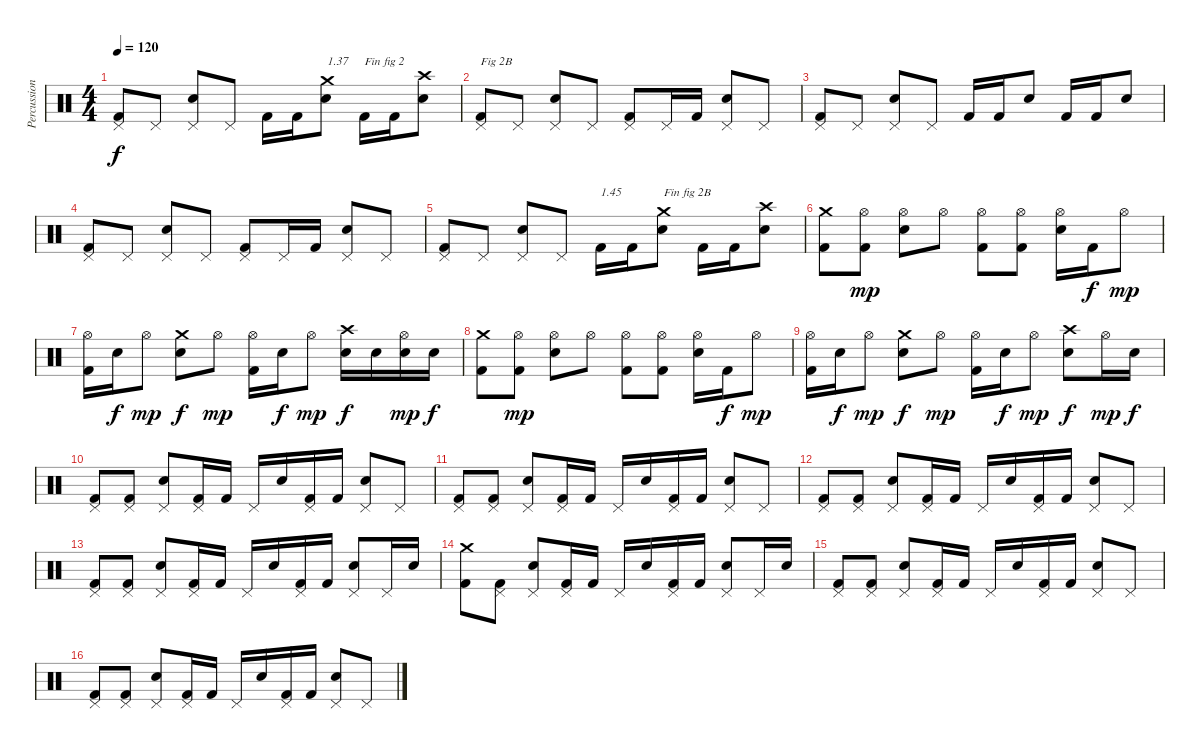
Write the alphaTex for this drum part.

\track ("Percussions" "Percussion") {instrument percussion}
\staff {score}
\articulation defaults
\ts (4 4)
\tempo 120
\clef neutral
\ks c
("Kick (hit) 2" "Pedal Hi-Hat (hit)").8{dy f} "Pedal Hi-Hat (hit)".8 ("Electric Snare (hit)" "Pedal Hi-Hat (hit)").8 "Pedal Hi-Hat (hit)".8 "Kick (hit) 2".16 "Kick (hit) 2".16 ("Electric Snare (hit)" "Crash medium (hit)").8{txt "1.37"} "Kick (hit) 2".16{txt "Fin fig 2"} "Kick (hit) 2".16 ("Electric Snare (hit)" "Crash high (hit)").8 |
("Kick (hit) 2" "Pedal Hi-Hat (hit)").8{txt "Fig 2B"} "Pedal Hi-Hat (hit)".8 ("Electric Snare (hit)" "Pedal Hi-Hat (hit)").8 "Pedal Hi-Hat (hit)".8 ("Kick (hit) 2" "Pedal Hi-Hat (hit)").8 "Pedal Hi-Hat (hit)".16 "Kick (hit) 2".16 ("Electric Snare (hit)" "Pedal Hi-Hat (hit)").8 "Pedal Hi-Hat (hit)".8 |
("Kick (hit) 2" "Pedal Hi-Hat (hit)").8 "Pedal Hi-Hat (hit)".8 ("Electric Snare (hit)" "Pedal Hi-Hat (hit)").8 "Pedal Hi-Hat (hit)".8 "Kick (hit) 2".16 "Kick (hit) 2".16 "Electric Snare (hit)".8 "Kick (hit) 2".16 "Kick (hit) 2".16 "Electric Snare (hit)".8 |
("Kick (hit) 2" "Pedal Hi-Hat (hit)").8 "Pedal Hi-Hat (hit)".8 ("Electric Snare (hit)" "Pedal Hi-Hat (hit)").8 "Pedal Hi-Hat (hit)".8 ("Kick (hit) 2" "Pedal Hi-Hat (hit)").8 "Pedal Hi-Hat (hit)".16 "Kick (hit) 2".16 ("Electric Snare (hit)" "Pedal Hi-Hat (hit)").8 "Pedal Hi-Hat (hit)".8 |
("Kick (hit) 2" "Pedal Hi-Hat (hit)").8 "Pedal Hi-Hat (hit)".8 ("Electric Snare (hit)" "Pedal Hi-Hat (hit)").8 "Pedal Hi-Hat (hit)".8 "Kick (hit) 2".16{txt "1.45"} "Kick (hit) 2".16 ("Electric Snare (hit)" "Crash medium (hit)").8{txt "Fin fig 2B"} "Kick (hit) 2".16 "Kick (hit) 2".16 ("Electric Snare (hit)" "Crash high (hit)").8 |
("Kick (hit) 2" "Crash medium (hit)").8 ("Kick (hit) 2" "Hi-Hat (open)").8{dy mp} ("Electric Snare (hit)" "Hi-Hat (open)").8 "Hi-Hat (open)".8 ("Kick (hit) 2" "Hi-Hat (open)").8 ("Kick (hit) 2" "Hi-Hat (open)").8 ("Electric Snare (hit)" "Hi-Hat (open)").16 "Kick (hit) 2".16{dy f} "Hi-Hat (open)".8{dy mp} |
("Kick (hit) 2" "Hi-Hat (open)").16 "Electric Snare (hit)".16{dy f} "Hi-Hat (open)".8{dy mp} ("Electric Snare (hit)" "Crash medium (hit)").8{dy f} "Hi-Hat (open)".8{dy mp} ("Kick (hit) 2" "Hi-Hat (open)").16 "Electric Snare (hit)".16{dy f} "Hi-Hat (open)".8{dy mp} ("Electric Snare (hit)" "Crash high (hit)").16{dy f} "Electric Snare (hit)".16 ("Electric Snare (hit)" "Hi-Hat (open)").16{dy mp} "Electric Snare (hit)".16{dy f} |
("Kick (hit) 2" "Crash medium (hit)").8 ("Kick (hit) 2" "Hi-Hat (open)").8{dy mp} ("Electric Snare (hit)" "Hi-Hat (open)").8 "Hi-Hat (open)".8 ("Kick (hit) 2" "Hi-Hat (open)").8 ("Kick (hit) 2" "Hi-Hat (open)").8 ("Electric Snare (hit)" "Hi-Hat (open)").16 "Kick (hit) 2".16{dy f} "Hi-Hat (open)".8{dy mp} |
("Kick (hit) 2" "Hi-Hat (open)").16 "Electric Snare (hit)".16{dy f} "Hi-Hat (open)".8{dy mp} ("Electric Snare (hit)" "Crash medium (hit)").8{dy f} "Hi-Hat (open)".8{dy mp} ("Kick (hit) 2" "Hi-Hat (open)").16 "Electric Snare (hit)".16{dy f} "Hi-Hat (open)".8{dy mp} ("Electric Snare (hit)" "Crash high (hit)").8{dy f} "Hi-Hat (open)".16{dy mp} "Electric Snare (hit)".16{dy f} |
("Kick (hit) 2" "Pedal Hi-Hat (hit)").8 ("Kick (hit) 2" "Pedal Hi-Hat (hit)").8 ("Electric Snare (hit)" "Pedal Hi-Hat (hit)").8 ("Kick (hit) 2" "Pedal Hi-Hat (hit)").16 "Kick (hit) 2".16 "Pedal Hi-Hat (hit)".16 "Electric Snare (hit)".16 ("Kick (hit) 2" "Pedal Hi-Hat (hit)").16 "Kick (hit) 2".16 ("Electric Snare (hit)" "Pedal Hi-Hat (hit)").8 "Pedal Hi-Hat (hit)".8 |
("Kick (hit) 2" "Pedal Hi-Hat (hit)").8 ("Kick (hit) 2" "Pedal Hi-Hat (hit)").8 ("Electric Snare (hit)" "Pedal Hi-Hat (hit)").8 ("Kick (hit) 2" "Pedal Hi-Hat (hit)").16 "Kick (hit) 2".16 "Pedal Hi-Hat (hit)".16 "Electric Snare (hit)".16 ("Kick (hit) 2" "Pedal Hi-Hat (hit)").16 "Kick (hit) 2".16 ("Electric Snare (hit)" "Pedal Hi-Hat (hit)").8 "Pedal Hi-Hat (hit)".8 |
("Kick (hit) 2" "Pedal Hi-Hat (hit)").8 ("Kick (hit) 2" "Pedal Hi-Hat (hit)").8 ("Electric Snare (hit)" "Pedal Hi-Hat (hit)").8 ("Kick (hit) 2" "Pedal Hi-Hat (hit)").16 "Kick (hit) 2".16 "Pedal Hi-Hat (hit)".16 "Electric Snare (hit)".16 ("Kick (hit) 2" "Pedal Hi-Hat (hit)").16 "Kick (hit) 2".16 ("Electric Snare (hit)" "Pedal Hi-Hat (hit)").8 "Pedal Hi-Hat (hit)".8 |
("Kick (hit) 2" "Pedal Hi-Hat (hit)").8 ("Kick (hit) 2" "Pedal Hi-Hat (hit)").8 ("Electric Snare (hit)" "Pedal Hi-Hat (hit)").8 ("Kick (hit) 2" "Pedal Hi-Hat (hit)").16 "Kick (hit) 2".16 "Pedal Hi-Hat (hit)".16 "Electric Snare (hit)".16 ("Kick (hit) 2" "Pedal Hi-Hat (hit)").16 "Kick (hit) 2".16 ("Electric Snare (hit)" "Pedal Hi-Hat (hit)").8 "Pedal Hi-Hat (hit)".16 "Electric Snare (hit)".16 |
("Kick (hit) 2" "Crash medium (hit)").8 ("Kick (hit) 2" "Pedal Hi-Hat (hit)").8 ("Electric Snare (hit)" "Pedal Hi-Hat (hit)").8 ("Kick (hit) 2" "Pedal Hi-Hat (hit)").16 "Kick (hit) 2".16 "Pedal Hi-Hat (hit)".16 "Electric Snare (hit)".16 ("Kick (hit) 2" "Pedal Hi-Hat (hit)").16 "Kick (hit) 2".16 ("Electric Snare (hit)" "Pedal Hi-Hat (hit)").8 "Pedal Hi-Hat (hit)".16 "Electric Snare (hit)".16 |
("Kick (hit) 2" "Pedal Hi-Hat (hit)").8 ("Kick (hit) 2" "Pedal Hi-Hat (hit)").8 ("Electric Snare (hit)" "Pedal Hi-Hat (hit)").8 ("Kick (hit) 2" "Pedal Hi-Hat (hit)").16 "Kick (hit) 2".16 "Pedal Hi-Hat (hit)".16 "Electric Snare (hit)".16 ("Kick (hit) 2" "Pedal Hi-Hat (hit)").16 "Kick (hit) 2".16 ("Electric Snare (hit)" "Pedal Hi-Hat (hit)").8 "Pedal Hi-Hat (hit)".8 |
("Kick (hit) 2" "Pedal Hi-Hat (hit)").8 ("Kick (hit) 2" "Pedal Hi-Hat (hit)").8 ("Electric Snare (hit)" "Pedal Hi-Hat (hit)").8 ("Kick (hit) 2" "Pedal Hi-Hat (hit)").16 "Kick (hit) 2".16 "Pedal Hi-Hat (hit)".16 "Electric Snare (hit)".16 ("Kick (hit) 2" "Pedal Hi-Hat (hit)").16 "Kick (hit) 2".16 ("Electric Snare (hit)" "Pedal Hi-Hat (hit)").8 "Pedal Hi-Hat (hit)".8
